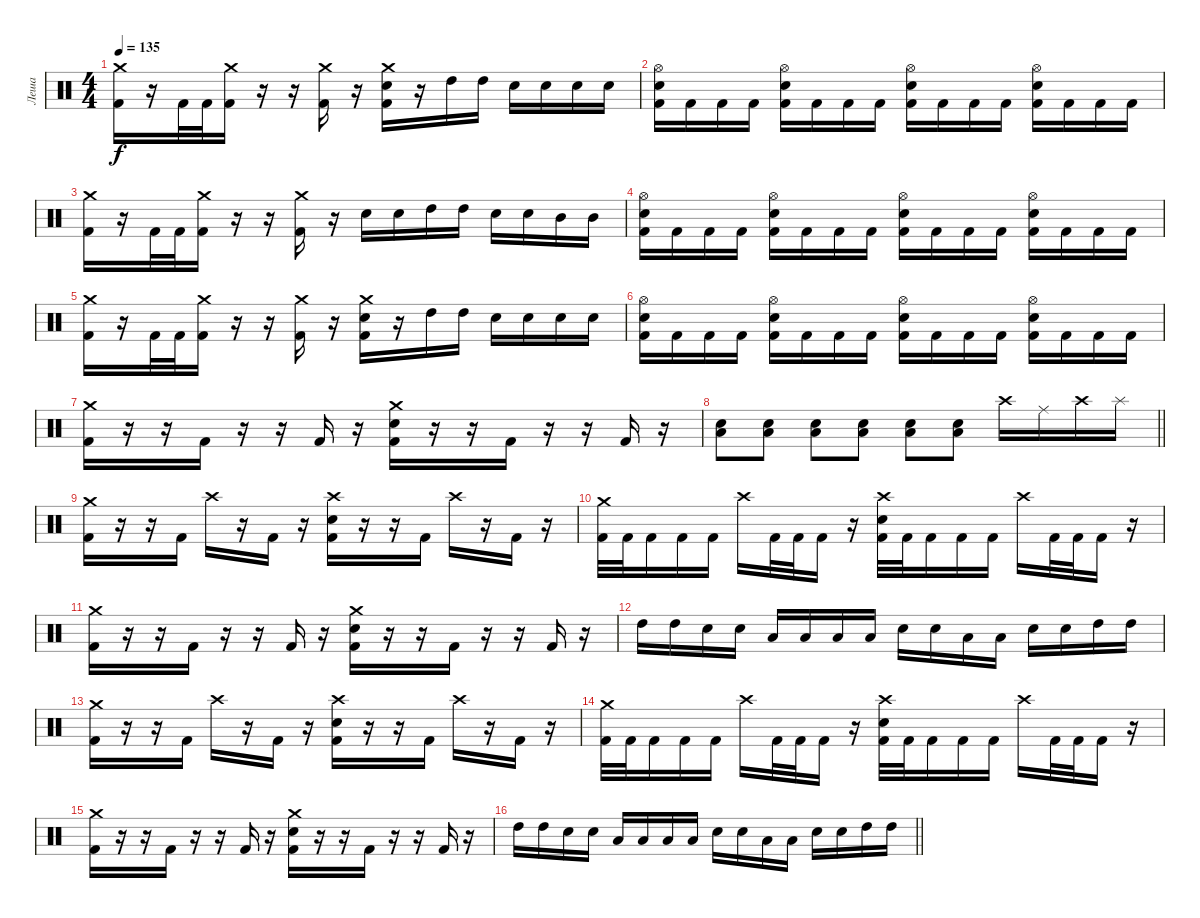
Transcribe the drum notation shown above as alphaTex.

\track ("Леша" "Леша") {instrument percussion}
\staff {score}
\articulation defaults
\ts (4 4)
\section ("" "")
\tempo 135
\clef neutral
\ks c
("Crash medium (hit)" "Kick (hit) 2").16{dy f} r.16 "Kick (hit) 2".32 "Kick (hit) 2".32 ("Crash medium (hit)" "Kick (hit) 2").16 r.16 r.16 ("Crash medium (hit)" "Kick (hit) 2").16 r.16 ("Crash medium (hit)" "Electric Snare (hit)" "Kick (hit) 2").16 r.16 "High Tom (hit)".16 "High Tom (hit)".16 "Electric Snare (hit)".16 "Electric Snare (hit)".16 "Electric Snare (hit)".16 "Electric Snare (hit)".16 |
("Hi-Hat (open)" "Electric Snare (hit)" "Kick (hit) 2").16 "Kick (hit) 2".16 "Kick (hit) 2".16 "Kick (hit) 2".16 ("Hi-Hat (open)" "Electric Snare (hit)" "Kick (hit) 2").16 "Kick (hit) 2".16 "Kick (hit) 2".16 "Kick (hit) 2".16 ("Hi-Hat (open)" "Electric Snare (hit)" "Kick (hit) 2").16 "Kick (hit) 2".16 "Kick (hit) 2".16 "Kick (hit) 2".16 ("Hi-Hat (open)" "Electric Snare (hit)" "Kick (hit) 2").16 "Kick (hit) 2".16 "Kick (hit) 2".16 "Kick (hit) 2".16 |
("Crash medium (hit)" "Kick (hit) 2").16 r.16 "Kick (hit) 2".32 "Kick (hit) 2".32 ("Crash medium (hit)" "Kick (hit) 2").16 r.16 r.16 ("Crash medium (hit)" "Kick (hit) 2").16 r.16 "Electric Snare (hit)".16 "Electric Snare (hit)".16 "High Tom (hit)".16 "High Tom (hit)".16 "Electric Snare (hit)".16 "Electric Snare (hit)".16 "Mid Tom (hit)".16 "Mid Tom (hit)".16 |
("Hi-Hat (open)" "Electric Snare (hit)" "Kick (hit) 2").16 "Kick (hit) 2".16 "Kick (hit) 2".16 "Kick (hit) 2".16 ("Hi-Hat (open)" "Electric Snare (hit)" "Kick (hit) 2").16 "Kick (hit) 2".16 "Kick (hit) 2".16 "Kick (hit) 2".16 ("Hi-Hat (open)" "Electric Snare (hit)" "Kick (hit) 2").16 "Kick (hit) 2".16 "Kick (hit) 2".16 "Kick (hit) 2".16 ("Hi-Hat (open)" "Electric Snare (hit)" "Kick (hit) 2").16 "Kick (hit) 2".16 "Kick (hit) 2".16 "Kick (hit) 2".16 |
("Crash medium (hit)" "Kick (hit) 2").16 r.16 "Kick (hit) 2".32 "Kick (hit) 2".32 ("Crash medium (hit)" "Kick (hit) 2").16 r.16 r.16 ("Crash medium (hit)" "Kick (hit) 2").16 r.16 ("Crash medium (hit)" "Electric Snare (hit)" "Kick (hit) 2").16 r.16 "High Tom (hit)".16 "High Tom (hit)".16 "Electric Snare (hit)".16 "Electric Snare (hit)".16 "Electric Snare (hit)".16 "Electric Snare (hit)".16 |
("Hi-Hat (open)" "Electric Snare (hit)" "Kick (hit) 2").16 "Kick (hit) 2".16 "Kick (hit) 2".16 "Kick (hit) 2".16 ("Hi-Hat (open)" "Electric Snare (hit)" "Kick (hit) 2").16 "Kick (hit) 2".16 "Kick (hit) 2".16 "Kick (hit) 2".16 ("Hi-Hat (open)" "Electric Snare (hit)" "Kick (hit) 2").16 "Kick (hit) 2".16 "Kick (hit) 2".16 "Kick (hit) 2".16 ("Hi-Hat (open)" "Electric Snare (hit)" "Kick (hit) 2").16 "Kick (hit) 2".16 "Kick (hit) 2".16 "Kick (hit) 2".16 |
("Crash medium (hit)" "Kick (hit) 2").16 r.16 r.16 "Kick (hit) 2".16 r.16 r.16 "Kick (hit) 2".16 r.16 ("Crash medium (hit)" "Electric Snare (hit)" "Kick (hit) 2").16 r.16 r.16 "Kick (hit) 2".16 r.16 r.16 "Kick (hit) 2".16 r.16 |
\barLineRight lightlight
("Electric Snare (hit)" "Low Tom (hit)").8 ("Electric Snare (hit)" "Low Tom (hit)").8 ("Electric Snare (hit)" "Low Tom (hit)").8 ("Electric Snare (hit)" "Low Tom (hit)").8 ("Electric Snare (hit)" "Low Tom (hit)").8 ("Electric Snare (hit)" "Low Tom (hit)").8 "Crash high (hit)".16 "Ride (middle)".16 "Crash high (hit)".16 "Splash (hit)".16 |
\section ("" "")
("Crash medium (hit)" "Kick (hit) 2").16 r.16 r.16 "Kick (hit) 2".16 "Crash high (hit)".16 r.16 "Kick (hit) 2".16 r.16 ("Crash high (hit)" "Electric Snare (hit)" "Kick (hit) 2").16 r.16 r.16 "Kick (hit) 2".16 "Crash high (hit)".16 r.16 "Kick (hit) 2".16 r.16 |
("Crash medium (hit)" "Kick (hit) 2").32 "Kick (hit) 2".32 "Kick (hit) 2".16 "Kick (hit) 2".16 "Kick (hit) 2".16 "Crash high (hit)".16 "Kick (hit) 2".32 "Kick (hit) 2".32 "Kick (hit) 2".16 r.16 ("Crash high (hit)" "Electric Snare (hit)" "Kick (hit) 2").32 "Kick (hit) 2".32 "Kick (hit) 2".16 "Kick (hit) 2".16 "Kick (hit) 2".16 "Crash high (hit)".16 "Kick (hit) 2".32 "Kick (hit) 2".32 "Kick (hit) 2".16 r.16 |
("Crash medium (hit)" "Kick (hit) 2").16 r.16 r.16 "Kick (hit) 2".16 r.16 r.16 "Kick (hit) 2".16 r.16 ("Crash medium (hit)" "Electric Snare (hit)" "Kick (hit) 2").16 r.16 r.16 "Kick (hit) 2".16 r.16 r.16 "Kick (hit) 2".16 r.16 |
"High Tom (hit)".16 "High Tom (hit)".16 "Electric Snare (hit)".16 "Electric Snare (hit)".16 "Low Tom (hit)".16 "Low Tom (hit)".16 "Low Tom (hit)".16 "Low Tom (hit)".16 "Electric Snare (hit)".16 "Electric Snare (hit)".16 "Low Tom (hit)".16 "Low Tom (hit)".16 "Electric Snare (hit)".16 "Electric Snare (hit)".16 "High Tom (hit)".16 "High Tom (hit)".16 |
("Crash medium (hit)" "Kick (hit) 2").16 r.16 r.16 "Kick (hit) 2".16 "Crash high (hit)".16 r.16 "Kick (hit) 2".16 r.16 ("Crash high (hit)" "Electric Snare (hit)" "Kick (hit) 2").16 r.16 r.16 "Kick (hit) 2".16 "Crash high (hit)".16 r.16 "Kick (hit) 2".16 r.16 |
("Crash medium (hit)" "Kick (hit) 2").32 "Kick (hit) 2".32 "Kick (hit) 2".16 "Kick (hit) 2".16 "Kick (hit) 2".16 "Crash high (hit)".16 "Kick (hit) 2".32 "Kick (hit) 2".32 "Kick (hit) 2".16 r.16 ("Crash high (hit)" "Electric Snare (hit)" "Kick (hit) 2").32 "Kick (hit) 2".32 "Kick (hit) 2".16 "Kick (hit) 2".16 "Kick (hit) 2".16 "Crash high (hit)".16 "Kick (hit) 2".32 "Kick (hit) 2".32 "Kick (hit) 2".16 r.16 |
("Crash medium (hit)" "Kick (hit) 2").16 r.16 r.16 "Kick (hit) 2".16 r.16 r.16 "Kick (hit) 2".16 r.16 ("Crash medium (hit)" "Electric Snare (hit)" "Kick (hit) 2").16 r.16 r.16 "Kick (hit) 2".16 r.16 r.16 "Kick (hit) 2".16 r.16 |
\barLineRight lightlight "High Tom (hit)".16 "High Tom (hit)".16 "Electric Snare (hit)".16 "Electric Snare (hit)".16 "Low Tom (hit)".16 "Low Tom (hit)".16 "Low Tom (hit)".16 "Low Tom (hit)".16 "Electric Snare (hit)".16 "Electric Snare (hit)".16 "Low Tom (hit)".16 "Low Tom (hit)".16 "Electric Snare (hit)".16 "Electric Snare (hit)".16 "High Tom (hit)".16 "High Tom (hit)".16
